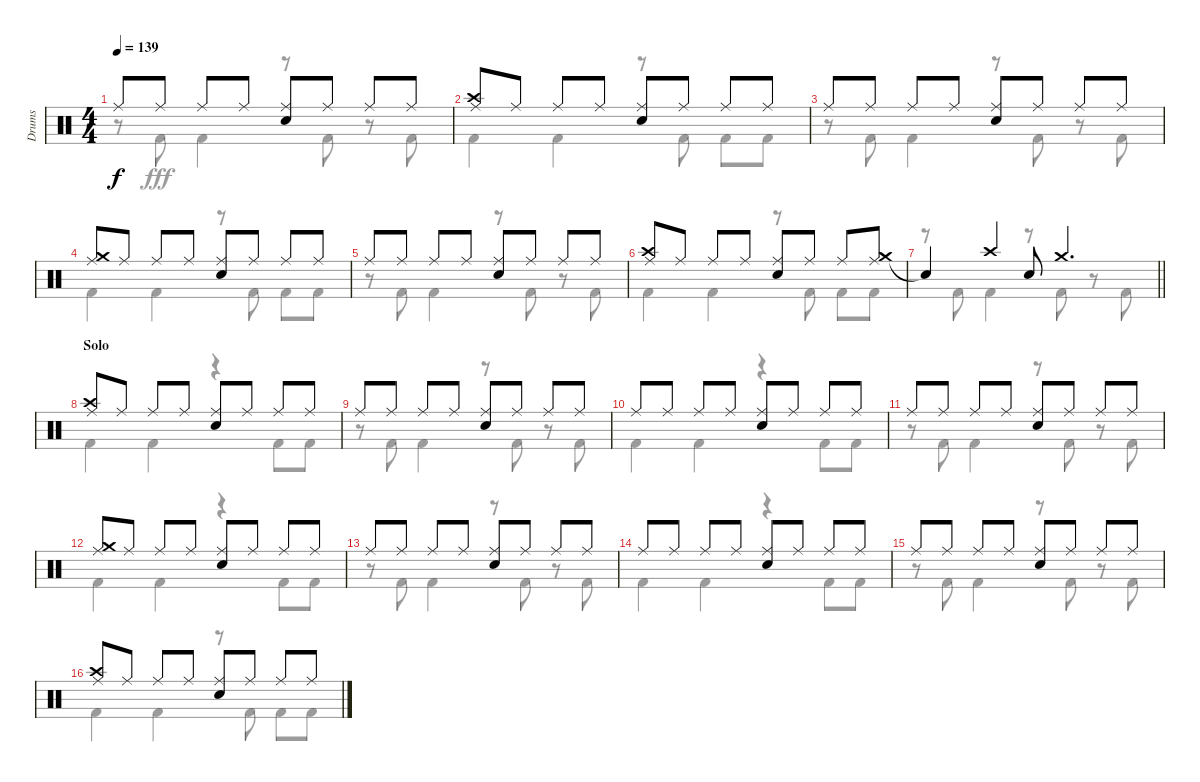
\track ("Drums" "Drums") {instrument percussion}
\staff {score}
\articulation defaults
\voice
\ts (4 4)
\tempo 139
\clef neutral
\ks aminor "Ride (middle)".8{dy f} "Ride (middle)".8 "Ride (middle)".8 "Ride (middle)".8
("Ride (middle)" "Snare (hit) 2").8 "Ride (middle)".8 "Ride (middle)".8 "Ride (middle)".8 |
("Crash high (hit)" "Ride (middle)").8 "Ride (middle)".8 "Ride (middle)".8 "Ride (middle)".8 ("Ride (middle)" "Snare (hit) 2").8 "Ride (middle)".8 "Ride (middle)".8 "Ride (middle)".8 |
"Ride (middle)".8 "Ride (middle)".8 "Ride (middle)".8 "Ride (middle)".8 ("Ride (middle)" "Snare (hit) 2").8 "Ride (middle)".8 "Ride (middle)".8 "Ride (middle)".8 |
("Crash medium (hit)" "Ride (middle)").8 "Ride (middle)".8 "Ride (middle)".8 "Ride (middle)".8 ("Ride (middle)" "Snare (hit) 2").8 "Ride (middle)".8 "Ride (middle)".8 "Ride (middle)".8 |
"Ride (middle)".8 "Ride (middle)".8 "Ride (middle)".8 "Ride (middle)".8 ("Ride (middle)" "Snare (hit) 2").8 "Ride (middle)".8 "Ride (middle)".8 "Ride (middle)".8 |
("Crash high (hit)" "Ride (middle)").8 "Ride (middle)".8 "Ride (middle)".8 "Ride (middle)".8 ("Ride (middle)" "Snare (hit) 2").8 "Ride (middle)".8 "Ride (middle)".8 ("Crash medium (hit)" "Ride (middle)").8 |
\barLineRight lightlight "Snare (hit)"{t}.4 "Crash high (hit)".4 "Snare (hit) 2".8 "Crash medium (hit)".4{d}
|
\section ("" "Solo")
("Crash high (hit)" "Ride (middle)").8 "Ride (middle)".8 "Ride (middle)".8 "Ride (middle)".8 ("Ride (middle)" "Snare (hit) 2").8 "Ride (middle)".8 "Ride (middle)".8 "Ride (middle)".8 |
"Ride (middle)".8 "Ride (middle)".8 "Ride (middle)".8 "Ride (middle)".8 ("Ride (middle)" "Snare (hit) 2").8 "Ride (middle)".8 "Ride (middle)".8 "Ride (middle)".8 |
"Ride (middle)".8 "Ride (middle)".8 "Ride (middle)".8 "Ride (middle)".8 ("Ride (middle)" "Snare (hit) 2").8 "Ride (middle)".8 "Ride (middle)".8 "Ride (middle)".8 |
"Ride (middle)".8 "Ride (middle)".8 "Ride (middle)".8 "Ride (middle)".8 ("Ride (middle)" "Snare (hit) 2").8 "Ride (middle)".8 "Ride (middle)".8 "Ride (middle)".8 |
("Crash medium (hit)" "Ride (middle)").8 "Ride (middle)".8 "Ride (middle)".8 "Ride (middle)".8 ("Ride (middle)" "Snare (hit) 2").8 "Ride (middle)".8 "Ride (middle)".8 "Ride (middle)".8 |
"Ride (middle)".8 "Ride (middle)".8 "Ride (middle)".8 "Ride (middle)".8 ("Ride (middle)" "Snare (hit) 2").8 "Ride (middle)".8 "Ride (middle)".8 "Ride (middle)".8 |
"Ride (middle)".8 "Ride (middle)".8 "Ride (middle)".8 "Ride (middle)".8 ("Ride (middle)" "Snare (hit) 2").8 "Ride (middle)".8 "Ride (middle)".8 "Ride (middle)".8 |
"Ride (middle)".8 "Ride (middle)".8 "Ride (middle)".8 "Ride (middle)".8 ("Ride (middle)" "Snare (hit) 2").8 "Ride (middle)".8 "Ride (middle)".8 "Ride (middle)".8 |
("Crash high (hit)" "Ride (middle)").8 "Ride (middle)".8 "Ride (middle)".8 "Ride (middle)".8 ("Ride (middle)" "Snare (hit) 2").8 "Ride (middle)".8 "Ride (middle)".8 "Ride (middle)".8
\voice
\clef neutral
\ottava regular
\simile none
\ks aminor
r.8{dy fff} "Kick (hit) 2".8 "Kick (hit) 2".4 r.8 "Kick (hit) 2".8 r.8 "Kick (hit) 2".8 |
"Kick (hit) 2".4 "Kick (hit) 2".4 r.8 "Kick (hit) 2".8 "Kick (hit) 2".8 "Kick (hit) 2".8 |
r.8 "Kick (hit) 2".8 "Kick (hit) 2".4 r.8 "Kick (hit) 2".8 r.8 "Kick (hit) 2".8 |
"Kick (hit) 2".4 "Kick (hit) 2".4 r.8 "Kick (hit) 2".8 "Kick (hit) 2".8 "Kick (hit) 2".8 |
r.8 "Kick (hit) 2".8 "Kick (hit) 2".4 r.8 "Kick (hit) 2".8 r.8 "Kick (hit) 2".8 |
"Kick (hit) 2".4 "Kick (hit) 2".4 r.8 "Kick (hit) 2".8 "Kick (hit) 2".8 "Kick (hit) 2".8 |
\barLineRight lightlight
r.8 "Kick (hit) 2".8 "Kick (hit) 2".4 r.8 "Kick (hit) 2".8 r.8 "Kick (hit) 2".8 |
"Kick (hit) 2".4 "Kick (hit) 2".4 r.4 "Kick (hit) 2".8 "Kick (hit) 2".8 |
r.8 "Kick (hit) 2".8 "Kick (hit) 2".4 r.8 "Kick (hit) 2".8 r.8 "Kick (hit) 2".8 |
"Kick (hit) 2".4 "Kick (hit) 2".4 r.4 "Kick (hit) 2".8 "Kick (hit) 2".8 |
r.8 "Kick (hit) 2".8 "Kick (hit) 2".4 r.8 "Kick (hit) 2".8 r.8 "Kick (hit) 2".8 |
"Kick (hit) 2".4 "Kick (hit) 2".4 r.4 "Kick (hit) 2".8 "Kick (hit) 2".8 |
r.8 "Kick (hit) 2".8 "Kick (hit) 2".4 r.8 "Kick (hit) 2".8 r.8 "Kick (hit) 2".8 |
"Kick (hit) 2".4 "Kick (hit) 2".4 r.4 "Kick (hit) 2".8 "Kick (hit) 2".8 |
r.8 "Kick (hit) 2".8 "Kick (hit) 2".4 r.8 "Kick (hit) 2".8 r.8 "Kick (hit) 2".8 |
"Kick (hit) 2".4 "Kick (hit) 2".4 r.8 "Kick (hit) 2".8 "Kick (hit) 2".8 "Kick (hit) 2".8
